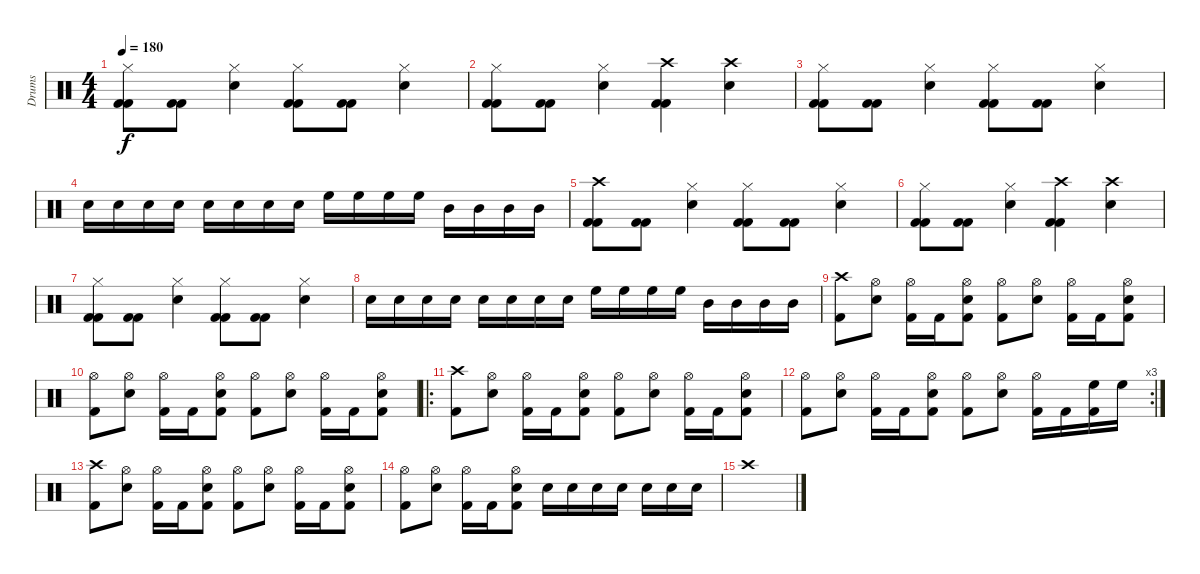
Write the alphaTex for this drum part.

\track ("Drums" "Drums") {instrument percussion}
\staff {score}
\articulation defaults
\ts (4 4)
\tempo 180
\clef neutral
\ks c
("Hi-Hat (closed)" "Kick (hit) 2" "Kick (hit) 2").8{dy f} ("Kick (hit) 2" "Kick (hit) 2").8 ("Hi-Hat (closed)" "Snare (hit) 2").4 ("Hi-Hat (closed)" "Kick (hit) 2" "Kick (hit) 2").8 ("Kick (hit) 2" "Kick (hit) 2").8 ("Hi-Hat (closed)" "Snare (hit) 2").4 |
("Hi-Hat (closed)" "Kick (hit) 2" "Kick (hit) 2").8 ("Kick (hit) 2" "Kick (hit) 2").8 ("Hi-Hat (closed)" "Snare (hit) 2").4 ("Crash high (hit)" "Kick (hit) 2" "Kick (hit) 2").4 ("Crash high (hit)" "Snare (hit) 2").4 |
("Hi-Hat (closed)" "Kick (hit) 2" "Kick (hit) 2").8 ("Kick (hit) 2" "Kick (hit) 2").8 ("Hi-Hat (closed)" "Snare (hit) 2").4 ("Hi-Hat (closed)" "Kick (hit) 2" "Kick (hit) 2").8 ("Kick (hit) 2" "Kick (hit) 2").8 ("Hi-Hat (closed)" "Snare (hit) 2").4 |
"Snare (hit) 2".16 "Snare (hit) 2".16 "Snare (hit) 2".16 "Snare (hit) 2".16 "Snare (hit) 2".16 "Snare (hit) 2".16 "Snare (hit) 2".16 "Snare (hit) 2".16 "High Floor Tom (hit)".16 "High Floor Tom (hit)".16 "High Floor Tom (hit)".16 "High Floor Tom (hit)".16 "Mid Tom (hit)".16 "Mid Tom (hit)".16 "Mid Tom (hit)".16 "Mid Tom (hit)".16 |
("Crash high (hit)" "Kick (hit) 2" "Kick (hit) 2").8 ("Kick (hit) 2" "Kick (hit) 2").8 ("Hi-Hat (closed)" "Snare (hit) 2").4 ("Hi-Hat (closed)" "Kick (hit) 2" "Kick (hit) 2").8 ("Kick (hit) 2" "Kick (hit) 2").8 ("Hi-Hat (closed)" "Snare (hit) 2").4 |
("Hi-Hat (closed)" "Kick (hit) 2" "Kick (hit) 2").8 ("Kick (hit) 2" "Kick (hit) 2").8 ("Hi-Hat (closed)" "Snare (hit) 2").4 ("Crash high (hit)" "Kick (hit) 2" "Kick (hit) 2").4 ("Crash high (hit)" "Snare (hit) 2").4 |
("Hi-Hat (closed)" "Kick (hit) 2" "Kick (hit) 2").8 ("Kick (hit) 2" "Kick (hit) 2").8 ("Hi-Hat (closed)" "Snare (hit) 2").4 ("Hi-Hat (closed)" "Kick (hit) 2" "Kick (hit) 2").8 ("Kick (hit) 2" "Kick (hit) 2").8 ("Hi-Hat (closed)" "Snare (hit) 2").4 |
"Snare (hit) 2".16 "Snare (hit) 2".16 "Snare (hit) 2".16 "Snare (hit) 2".16 "Snare (hit) 2".16 "Snare (hit) 2".16 "Snare (hit) 2".16 "Snare (hit) 2".16 "High Floor Tom (hit)".16 "High Floor Tom (hit)".16 "High Floor Tom (hit)".16 "High Floor Tom (hit)".16 "Mid Tom (hit)".16 "Mid Tom (hit)".16 "Mid Tom (hit)".16 "Mid Tom (hit)".16 |
("Crash high (hit)" "Kick (hit) 2").8 ("Hi-Hat (open)" "Snare (hit) 2").8 ("Hi-Hat (open)" "Kick (hit) 2").16 "Kick (hit) 2".16 ("Hi-Hat (open)" "Snare (hit) 2" "Kick (hit) 2").8 ("Hi-Hat (open)" "Kick (hit) 2").8 ("Hi-Hat (open)" "Snare (hit) 2").8 ("Hi-Hat (open)" "Kick (hit) 2").16 "Kick (hit) 2".16 ("Hi-Hat (open)" "Snare (hit) 2" "Kick (hit) 2").8 |
("Hi-Hat (open)" "Kick (hit) 2").8 ("Hi-Hat (open)" "Snare (hit) 2").8 ("Hi-Hat (open)" "Kick (hit) 2").16 "Kick (hit) 2".16 ("Hi-Hat (open)" "Snare (hit) 2" "Kick (hit) 2").8 ("Hi-Hat (open)" "Kick (hit) 2").8 ("Hi-Hat (open)" "Snare (hit) 2").8 ("Hi-Hat (open)" "Kick (hit) 2").16 "Kick (hit) 2".16 ("Hi-Hat (open)" "Snare (hit) 2" "Kick (hit) 2").8 |
\ro
("Crash high (hit)" "Kick (hit) 2").8 ("Hi-Hat (open)" "Snare (hit) 2").8 ("Hi-Hat (open)" "Kick (hit) 2").16 "Kick (hit) 2".16 ("Hi-Hat (open)" "Snare (hit) 2" "Kick (hit) 2").8 ("Hi-Hat (open)" "Kick (hit) 2").8 ("Hi-Hat (open)" "Snare (hit) 2").8 ("Hi-Hat (open)" "Kick (hit) 2").16 "Kick (hit) 2".16 ("Hi-Hat (open)" "Snare (hit) 2" "Kick (hit) 2").8 |
\rc 3
("Hi-Hat (open)" "Kick (hit) 2").8 ("Hi-Hat (open)" "Snare (hit) 2").8 ("Hi-Hat (open)" "Kick (hit) 2").16 "Kick (hit) 2".16 ("Hi-Hat (open)" "Snare (hit) 2" "Kick (hit) 2").8 ("Hi-Hat (open)" "Kick (hit) 2").8 ("Hi-Hat (open)" "Snare (hit) 2").8 ("Hi-Hat (open)" "Kick (hit) 2").16 "Kick (hit) 2".16 ("High Floor Tom (hit)" "Kick (hit) 2").16 "High Floor Tom (hit)".16 |
("Crash high (hit)" "Kick (hit) 2").8 ("Hi-Hat (open)" "Snare (hit) 2").8 ("Hi-Hat (open)" "Kick (hit) 2").16 "Kick (hit) 2".16 ("Hi-Hat (open)" "Snare (hit) 2" "Kick (hit) 2").8 ("Hi-Hat (open)" "Kick (hit) 2").8 ("Hi-Hat (open)" "Snare (hit) 2").8 ("Hi-Hat (open)" "Kick (hit) 2").16 "Kick (hit) 2".16 ("Hi-Hat (open)" "Snare (hit) 2" "Kick (hit) 2").8 |
("Hi-Hat (open)" "Kick (hit) 2").8 ("Hi-Hat (open)" "Snare (hit) 2").8 ("Hi-Hat (open)" "Kick (hit) 2").16 "Kick (hit) 2".16 ("Hi-Hat (open)" "Snare (hit) 2" "Kick (hit) 2").8 "Snare (hit) 2".16 "Snare (hit) 2".16 "Snare (hit) 2".16 "Snare (hit) 2".16 "Snare (hit) 2".16 "Snare (hit) 2".16 "Snare (hit) 2".16 |
"Crash high (hit)".1
